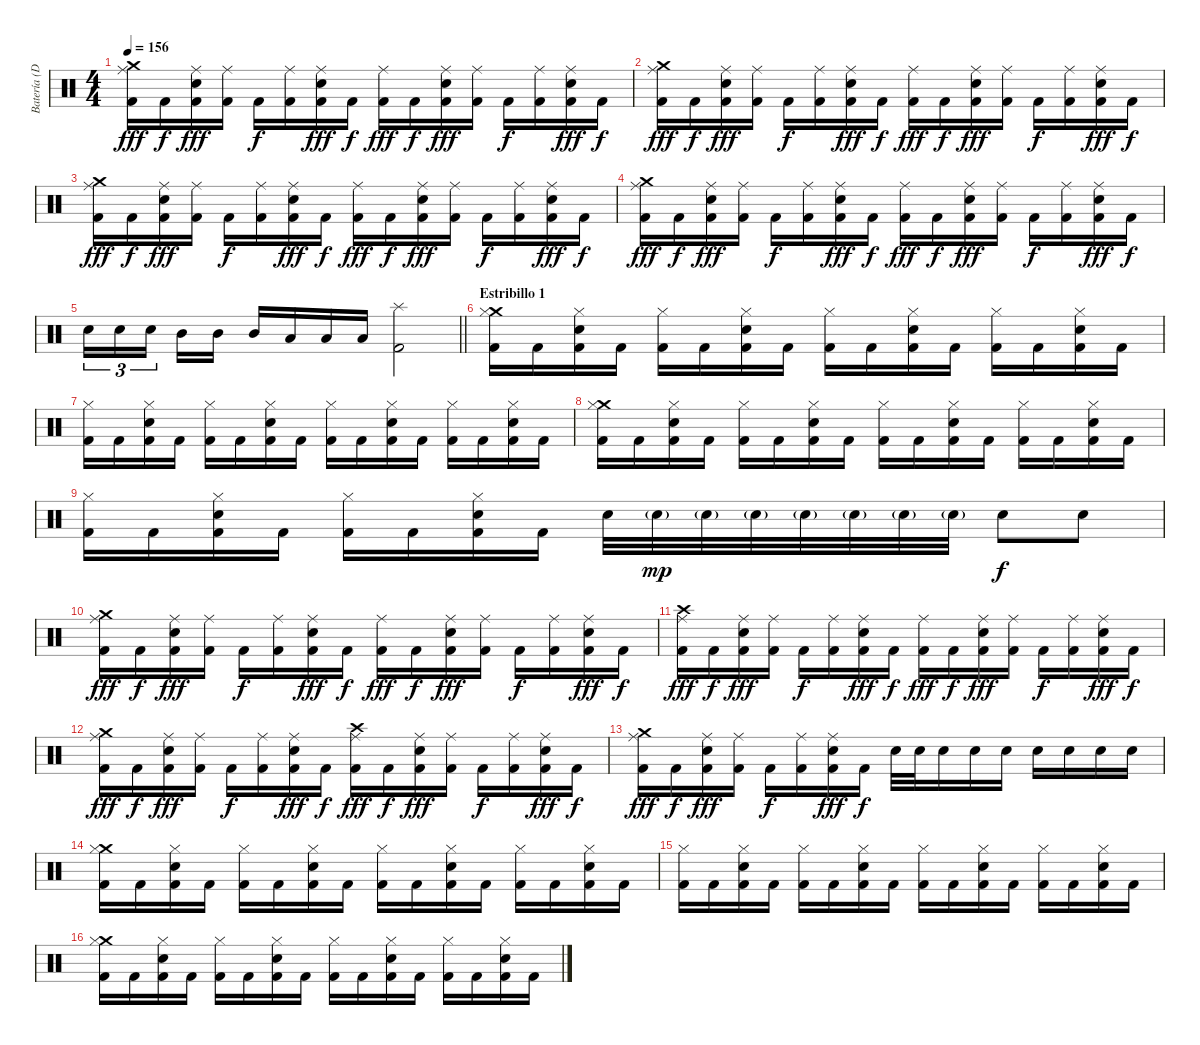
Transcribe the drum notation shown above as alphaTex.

\track ("Batería (Dani)" "Batería (D") {instrument percussion}
\staff {score}
\articulation defaults
\ts (4 4)
\tempo 156
\clef neutral
\ks c
("Crash medium (hit)" "Ride (middle)" "Kick (hit) 2").16{dy fff} "Kick (hit) 2".16{dy f} ("Ride (middle)" "Electric Snare (hit)" "Kick (hit) 2").16{dy fff} ("Ride (middle)" "Kick (hit) 2").16 "Kick (hit) 2".16{dy f} ("Ride (middle)" "Kick (hit) 2").16 ("Ride (middle)" "Electric Snare (hit)" "Kick (hit) 2").16{dy fff} "Kick (hit) 2".16{dy f} ("Ride (middle)" "Kick (hit) 2").16{dy fff} "Kick (hit) 2".16{dy f} ("Ride (middle)" "Electric Snare (hit)" "Kick (hit) 2").16{dy fff} ("Ride (middle)" "Kick (hit) 2").16 "Kick (hit) 2".16{dy f} ("Ride (middle)" "Kick (hit) 2").16 ("Ride (middle)" "Electric Snare (hit)" "Kick (hit) 2").16{dy fff} "Kick (hit) 2".16{dy f} |
("Crash medium (hit)" "Ride (middle)" "Kick (hit) 2").16{dy fff} "Kick (hit) 2".16{dy f} ("Ride (middle)" "Electric Snare (hit)" "Kick (hit) 2").16{dy fff} ("Ride (middle)" "Kick (hit) 2").16 "Kick (hit) 2".16{dy f} ("Ride (middle)" "Kick (hit) 2").16 ("Ride (middle)" "Electric Snare (hit)" "Kick (hit) 2").16{dy fff} "Kick (hit) 2".16{dy f} ("Ride (middle)" "Kick (hit) 2").16{dy fff} "Kick (hit) 2".16{dy f} ("Ride (middle)" "Electric Snare (hit)" "Kick (hit) 2").16{dy fff} ("Ride (middle)" "Kick (hit) 2").16 "Kick (hit) 2".16{dy f} ("Ride (middle)" "Kick (hit) 2").16 ("Ride (middle)" "Electric Snare (hit)" "Kick (hit) 2").16{dy fff} "Kick (hit) 2".16{dy f} |
("Crash medium (hit)" "Ride (middle)" "Kick (hit) 2").16{dy fff} "Kick (hit) 2".16{dy f} ("Ride (middle)" "Electric Snare (hit)" "Kick (hit) 2").16{dy fff} ("Ride (middle)" "Kick (hit) 2").16 "Kick (hit) 2".16{dy f} ("Ride (middle)" "Kick (hit) 2").16 ("Ride (middle)" "Electric Snare (hit)" "Kick (hit) 2").16{dy fff} "Kick (hit) 2".16{dy f} ("Ride (middle)" "Kick (hit) 2").16{dy fff} "Kick (hit) 2".16{dy f} ("Ride (middle)" "Electric Snare (hit)" "Kick (hit) 2").16{dy fff} ("Ride (middle)" "Kick (hit) 2").16 "Kick (hit) 2".16{dy f} ("Ride (middle)" "Kick (hit) 2").16 ("Ride (middle)" "Electric Snare (hit)" "Kick (hit) 2").16{dy fff} "Kick (hit) 2".16{dy f} |
("Crash medium (hit)" "Ride (middle)" "Kick (hit) 2").16{dy fff} "Kick (hit) 2".16{dy f} ("Ride (middle)" "Electric Snare (hit)" "Kick (hit) 2").16{dy fff} ("Ride (middle)" "Kick (hit) 2").16 "Kick (hit) 2".16{dy f} ("Ride (middle)" "Kick (hit) 2").16 ("Ride (middle)" "Electric Snare (hit)" "Kick (hit) 2").16{dy fff} "Kick (hit) 2".16{dy f} ("Ride (middle)" "Kick (hit) 2").16{dy fff} "Kick (hit) 2".16{dy f} ("Ride (middle)" "Electric Snare (hit)" "Kick (hit) 2").16{dy fff} ("Ride (middle)" "Kick (hit) 2").16 "Kick (hit) 2".16{dy f} ("Ride (middle)" "Kick (hit) 2").16 ("Ride (middle)" "Electric Snare (hit)" "Kick (hit) 2").16{dy fff} "Kick (hit) 2".16{dy f} |
\barLineRight lightlight "Electric Snare (hit)".16{tu (3 2)} "Electric Snare (hit)".16{tu (3 2)} "Electric Snare (hit)".16{tu (3 2) beam splitsecondary} "Mid Tom (hit)".16 "Mid Tom (hit)".16 "Mid Tom (hit)".16 "Low Tom (hit)".16 "Low Tom (hit)".16 "Low Tom (hit)".16
("Splash (hit)" "Kick (hit) 2").2 |
\section ("" "Estribillo 1 ")
("Crash medium (hit)" "Hi-Hat (closed)" "Kick (hit) 2").16 "Kick (hit) 2".16 ("Hi-Hat (closed)" "Electric Snare (hit)" "Kick (hit) 2").16 "Kick (hit) 2".16 ("Hi-Hat (closed)" "Kick (hit) 2").16 "Kick (hit) 2".16 ("Hi-Hat (closed)" "Electric Snare (hit)" "Kick (hit) 2").16 "Kick (hit) 2".16 ("Hi-Hat (closed)" "Kick (hit) 2").16 "Kick (hit) 2".16 ("Hi-Hat (closed)" "Electric Snare (hit)" "Kick (hit) 2").16 "Kick (hit) 2".16 ("Hi-Hat (closed)" "Kick (hit) 2").16 "Kick (hit) 2".16 ("Hi-Hat (closed)" "Electric Snare (hit)" "Kick (hit) 2").16 "Kick (hit) 2".16 |
("Hi-Hat (closed)" "Kick (hit) 2").16 "Kick (hit) 2".16 ("Hi-Hat (closed)" "Electric Snare (hit)" "Kick (hit) 2").16 "Kick (hit) 2".16 ("Hi-Hat (closed)" "Kick (hit) 2").16 "Kick (hit) 2".16 ("Hi-Hat (closed)" "Electric Snare (hit)" "Kick (hit) 2").16 "Kick (hit) 2".16 ("Hi-Hat (closed)" "Kick (hit) 2").16 "Kick (hit) 2".16 ("Hi-Hat (closed)" "Electric Snare (hit)" "Kick (hit) 2").16 "Kick (hit) 2".16 ("Hi-Hat (closed)" "Kick (hit) 2").16 "Kick (hit) 2".16 ("Hi-Hat (closed)" "Electric Snare (hit)" "Kick (hit) 2").16 "Kick (hit) 2".16 |
("Crash medium (hit)" "Hi-Hat (closed)" "Kick (hit) 2").16 "Kick (hit) 2".16 ("Hi-Hat (closed)" "Electric Snare (hit)" "Kick (hit) 2").16 "Kick (hit) 2".16 ("Hi-Hat (closed)" "Kick (hit) 2").16 "Kick (hit) 2".16 ("Hi-Hat (closed)" "Electric Snare (hit)" "Kick (hit) 2").16 "Kick (hit) 2".16 ("Hi-Hat (closed)" "Kick (hit) 2").16 "Kick (hit) 2".16 ("Hi-Hat (closed)" "Electric Snare (hit)" "Kick (hit) 2").16 "Kick (hit) 2".16 ("Hi-Hat (closed)" "Kick (hit) 2").16 "Kick (hit) 2".16 ("Hi-Hat (closed)" "Electric Snare (hit)" "Kick (hit) 2").16 "Kick (hit) 2".16 |
("Hi-Hat (closed)" "Kick (hit) 2").16 "Kick (hit) 2".16 ("Hi-Hat (closed)" "Electric Snare (hit)" "Kick (hit) 2").16 "Kick (hit) 2".16 ("Hi-Hat (closed)" "Kick (hit) 2").16 "Kick (hit) 2".16 ("Hi-Hat (closed)" "Electric Snare (hit)" "Kick (hit) 2").16 "Kick (hit) 2".16 "Electric Snare (hit)".32 "Electric Snare (hit)"{g}.32{dy mp} "Electric Snare (hit)"{g}.32 "Electric Snare (hit)"{g}.32 "Electric Snare (hit)"{g}.32 "Electric Snare (hit)"{g}.32 "Electric Snare (hit)"{g}.32 "Electric Snare (hit)"{g}.32 "Electric Snare (hit)".8{dy f} "Electric Snare (hit)".8 |
("Crash medium (hit)" "Ride (middle)" "Kick (hit) 2").16{dy fff} "Kick (hit) 2".16{dy f} ("Ride (middle)" "Electric Snare (hit)" "Kick (hit) 2").16{dy fff} ("Ride (middle)" "Kick (hit) 2").16 "Kick (hit) 2".16{dy f} ("Ride (middle)" "Kick (hit) 2").16 ("Ride (middle)" "Electric Snare (hit)" "Kick (hit) 2").16{dy fff} "Kick (hit) 2".16{dy f} ("Ride (middle)" "Kick (hit) 2").16{dy fff} "Kick (hit) 2".16{dy f} ("Ride (middle)" "Electric Snare (hit)" "Kick (hit) 2").16{dy fff} ("Ride (middle)" "Kick (hit) 2").16 "Kick (hit) 2".16{dy f} ("Ride (middle)" "Kick (hit) 2").16 ("Ride (middle)" "Electric Snare (hit)" "Kick (hit) 2").16{dy fff} "Kick (hit) 2".16{dy f} |
("Crash high (hit)" "Ride (middle)" "Kick (hit) 2").16{dy fff} "Kick (hit) 2".16{dy f} ("Ride (middle)" "Electric Snare (hit)" "Kick (hit) 2").16{dy fff} ("Ride (middle)" "Kick (hit) 2").16 "Kick (hit) 2".16{dy f} ("Ride (middle)" "Kick (hit) 2").16 ("Ride (middle)" "Electric Snare (hit)" "Kick (hit) 2").16{dy fff} "Kick (hit) 2".16{dy f} ("Ride (middle)" "Kick (hit) 2").16{dy fff} "Kick (hit) 2".16{dy f} ("Ride (middle)" "Electric Snare (hit)" "Kick (hit) 2").16{dy fff} ("Ride (middle)" "Kick (hit) 2").16 "Kick (hit) 2".16{dy f} ("Ride (middle)" "Kick (hit) 2").16 ("Ride (middle)" "Electric Snare (hit)" "Kick (hit) 2").16{dy fff} "Kick (hit) 2".16{dy f} |
("Crash medium (hit)" "Ride (middle)" "Kick (hit) 2").16{dy fff} "Kick (hit) 2".16{dy f} ("Ride (middle)" "Electric Snare (hit)" "Kick (hit) 2").16{dy fff} ("Ride (middle)" "Kick (hit) 2").16 "Kick (hit) 2".16{dy f} ("Ride (middle)" "Kick (hit) 2").16 ("Ride (middle)" "Electric Snare (hit)" "Kick (hit) 2").16{dy fff} "Kick (hit) 2".16{dy f} ("Crash high (hit)" "Ride (middle)" "Kick (hit) 2").16{dy fff} "Kick (hit) 2".16{dy f} ("Ride (middle)" "Electric Snare (hit)" "Kick (hit) 2").16{dy fff} ("Ride (middle)" "Kick (hit) 2").16 "Kick (hit) 2".16{dy f} ("Ride (middle)" "Kick (hit) 2").16 ("Ride (middle)" "Electric Snare (hit)" "Kick (hit) 2").16{dy fff} "Kick (hit) 2".16{dy f} |
("Crash medium (hit)" "Ride (middle)" "Kick (hit) 2").16{dy fff} "Kick (hit) 2".16{dy f} ("Ride (middle)" "Electric Snare (hit)" "Kick (hit) 2").16{dy fff} ("Ride (middle)" "Kick (hit) 2").16 "Kick (hit) 2".16{dy f} ("Ride (middle)" "Kick (hit) 2").16 ("Ride (middle)" "Electric Snare (hit)" "Kick (hit) 2").16{dy fff} "Kick (hit) 2".16{dy f} "Electric Snare (hit)".32 "Electric Snare (hit)".32 "Electric Snare (hit)".16 "Electric Snare (hit)".16 "Electric Snare (hit)".16 "Electric Snare (hit)".16 "Electric Snare (hit)".16 "Electric Snare (hit)".16 "Electric Snare (hit)".16 |
("Crash medium (hit)" "Hi-Hat (closed)" "Kick (hit) 2").16 "Kick (hit) 2".16 ("Hi-Hat (closed)" "Electric Snare (hit)" "Kick (hit) 2").16 "Kick (hit) 2".16 ("Hi-Hat (closed)" "Kick (hit) 2").16 "Kick (hit) 2".16 ("Hi-Hat (closed)" "Electric Snare (hit)" "Kick (hit) 2").16 "Kick (hit) 2".16 ("Hi-Hat (closed)" "Kick (hit) 2").16 "Kick (hit) 2".16 ("Hi-Hat (closed)" "Electric Snare (hit)" "Kick (hit) 2").16 "Kick (hit) 2".16 ("Hi-Hat (closed)" "Kick (hit) 2").16 "Kick (hit) 2".16 ("Hi-Hat (closed)" "Electric Snare (hit)" "Kick (hit) 2").16 "Kick (hit) 2".16 |
("Hi-Hat (closed)" "Kick (hit) 2").16 "Kick (hit) 2".16 ("Hi-Hat (closed)" "Electric Snare (hit)" "Kick (hit) 2").16 "Kick (hit) 2".16 ("Hi-Hat (closed)" "Kick (hit) 2").16 "Kick (hit) 2".16 ("Hi-Hat (closed)" "Electric Snare (hit)" "Kick (hit) 2").16 "Kick (hit) 2".16 ("Hi-Hat (closed)" "Kick (hit) 2").16 "Kick (hit) 2".16 ("Hi-Hat (closed)" "Electric Snare (hit)" "Kick (hit) 2").16 "Kick (hit) 2".16 ("Hi-Hat (closed)" "Kick (hit) 2").16 "Kick (hit) 2".16 ("Hi-Hat (closed)" "Electric Snare (hit)" "Kick (hit) 2").16 "Kick (hit) 2".16 |
("Crash medium (hit)" "Hi-Hat (closed)" "Kick (hit) 2").16 "Kick (hit) 2".16 ("Hi-Hat (closed)" "Electric Snare (hit)" "Kick (hit) 2").16 "Kick (hit) 2".16 ("Hi-Hat (closed)" "Kick (hit) 2").16 "Kick (hit) 2".16 ("Hi-Hat (closed)" "Electric Snare (hit)" "Kick (hit) 2").16 "Kick (hit) 2".16 ("Hi-Hat (closed)" "Kick (hit) 2").16 "Kick (hit) 2".16 ("Hi-Hat (closed)" "Electric Snare (hit)" "Kick (hit) 2").16 "Kick (hit) 2".16 ("Hi-Hat (closed)" "Kick (hit) 2").16 "Kick (hit) 2".16 ("Hi-Hat (closed)" "Electric Snare (hit)" "Kick (hit) 2").16 "Kick (hit) 2".16
